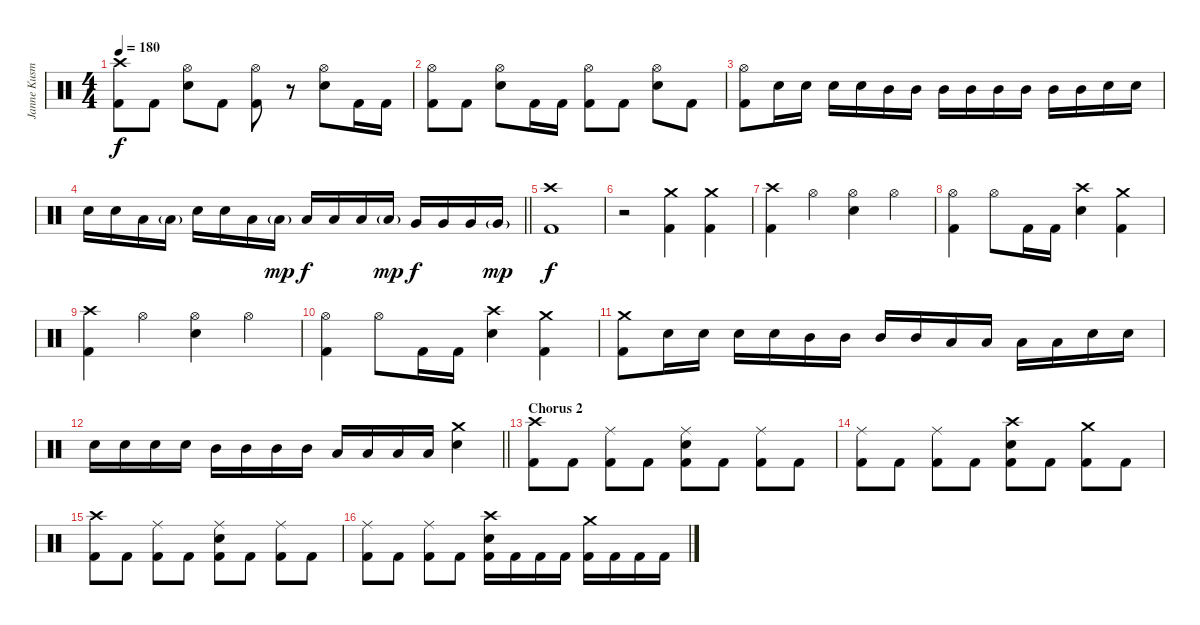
\track ("Janne Kusmin - Drums" "Janne Kusm") {instrument percussion}
\staff {score}
\articulation defaults
\ts (4 4)
\tempo 180
\clef neutral
\ks c
("Crash high (hit)" "Kick (hit) 2").8{dy f} "Kick (hit) 2".8 ("Hi-Hat (open)" "Electric Snare (hit)").8 "Kick (hit) 2".8 ("Hi-Hat (open)" "Kick (hit) 2").8 r.8 ("Hi-Hat (open)" "Electric Snare (hit)").8 "Kick (hit) 2".16 "Kick (hit) 2".16 |
("Hi-Hat (open)" "Kick (hit) 2").8 "Kick (hit) 2".8 ("Hi-Hat (open)" "Electric Snare (hit)").8 "Kick (hit) 2".16 "Kick (hit) 2".16 ("Hi-Hat (open)" "Kick (hit) 2").8 "Kick (hit) 2".8 ("Hi-Hat (open)" "Electric Snare (hit)").8 "Kick (hit) 2".8 |
("Hi-Hat (open)" "Kick (hit) 2").8 "Electric Snare (hit)".16 "Electric Snare (hit)".16 "Electric Snare (hit)".16 "Electric Snare (hit)".16 "Mid Tom (hit)".16 "Mid Tom (hit)".16 "Mid Tom (hit)".16 "Mid Tom (hit)".16 "Mid Tom (hit)".16 "Mid Tom (hit)".16 "Mid Tom (hit)".16 "Mid Tom (hit)".16 "Electric Snare (hit)".16 "Electric Snare (hit)".16 |
\barLineRight lightlight "Electric Snare (hit)".16 "Electric Snare (hit)".16 "Low Tom (hit)".16 "Low Tom (hit)"{g}.16 "Electric Snare (hit)".16 "Electric Snare (hit)".16 "Low Tom (hit)".16 "Low Tom (hit)"{g}.16{dy mp} "Low Tom (hit)".16{dy f} "Low Tom (hit)".16 "Low Tom (hit)".16 "Low Tom (hit)"{g}.16{dy mp} "Very Low Tom (hit)".16{dy f} "Very Low Tom (hit)".16 "Very Low Tom (hit)".16 "Very Low Tom (hit)"{g}.16{dy mp}
|
\section ("" "")
("Crash high (hit)" "Kick (hit) 2").1{dy f} |
r.2 ("Crash medium (hit)" "Kick (hit) 2").4 ("Crash medium (hit)" "Kick (hit) 2").4 |
("Crash high (hit)" "Kick (hit) 2").4 "Hi-Hat (open)".4 ("Hi-Hat (open)" "Electric Snare (hit)").4 "Hi-Hat (open)".4 |
("Hi-Hat (open)" "Kick (hit) 2").4 "Hi-Hat (open)".8 "Kick (hit) 2".16 "Kick (hit) 2".16 ("Crash high (hit)" "Electric Snare (hit)").4 ("Crash medium (hit)" "Kick (hit) 2").4 |
("Crash high (hit)" "Kick (hit) 2").4 "Hi-Hat (open)".4 ("Hi-Hat (open)" "Electric Snare (hit)").4 "Hi-Hat (open)".4 |
("Hi-Hat (open)" "Kick (hit) 2").4 "Hi-Hat (open)".8 "Kick (hit) 2".16 "Kick (hit) 2".16 ("Crash high (hit)" "Electric Snare (hit)").4 ("Crash medium (hit)" "Kick (hit) 2").4 |
("Crash medium (hit)" "Kick (hit) 2").8 "Electric Snare (hit)".16 "Electric Snare (hit)".16 "Electric Snare (hit)".16 "Electric Snare (hit)".16 "Mid Tom (hit)".16 "Mid Tom (hit)".16 "Mid Tom (hit)".16 "Mid Tom (hit)".16 "Low Tom (hit)".16 "Low Tom (hit)".16 "Low Tom (hit)".16 "Low Tom (hit)".16 "Electric Snare (hit)".16 "Electric Snare (hit)".16 |
\barLineRight lightlight "Electric Snare (hit)".16 "Electric Snare (hit)".16 "Electric Snare (hit)".16 "Electric Snare (hit)".16 "Mid Tom (hit)".16 "Mid Tom (hit)".16 "Mid Tom (hit)".16 "Mid Tom (hit)".16 "Low Tom (hit)".16 "Low Tom (hit)".16 "Low Tom (hit)".16 "Low Tom (hit)".16
("Crash medium (hit)" "Electric Snare (hit)").4 |
\section ("" "Chorus 2")
("Crash high (hit)" "Kick (hit) 2").8 "Kick (hit) 2".8 ("Ride (middle)" "Kick (hit) 2").8 "Kick (hit) 2".8 ("Ride (middle)" "Electric Snare (hit)" "Kick (hit) 2").8 "Kick (hit) 2".8 ("Ride (middle)" "Kick (hit) 2").8 "Kick (hit) 2".8 |
("Ride (middle)" "Kick (hit) 2").8 "Kick (hit) 2".8 ("Ride (middle)" "Kick (hit) 2").8 "Kick (hit) 2".8 ("Crash high (hit)" "Electric Snare (hit)" "Kick (hit) 2").8 "Kick (hit) 2".8 ("Crash medium (hit)" "Kick (hit) 2").8 "Kick (hit) 2".8 |
("Crash high (hit)" "Kick (hit) 2").8 "Kick (hit) 2".8 ("Ride (middle)" "Kick (hit) 2").8 "Kick (hit) 2".8 ("Ride (middle)" "Electric Snare (hit)" "Kick (hit) 2").8 "Kick (hit) 2".8 ("Ride (middle)" "Kick (hit) 2").8 "Kick (hit) 2".8 |
("Ride (middle)" "Kick (hit) 2").8 "Kick (hit) 2".8 ("Ride (middle)" "Kick (hit) 2").8 "Kick (hit) 2".8 ("Crash high (hit)" "Electric Snare (hit)" "Kick (hit) 2").16 "Kick (hit) 2".16 "Kick (hit) 2".16 "Kick (hit) 2".16 ("Crash medium (hit)" "Kick (hit) 2").16 "Kick (hit) 2".16 "Kick (hit) 2".16 "Kick (hit) 2".16
